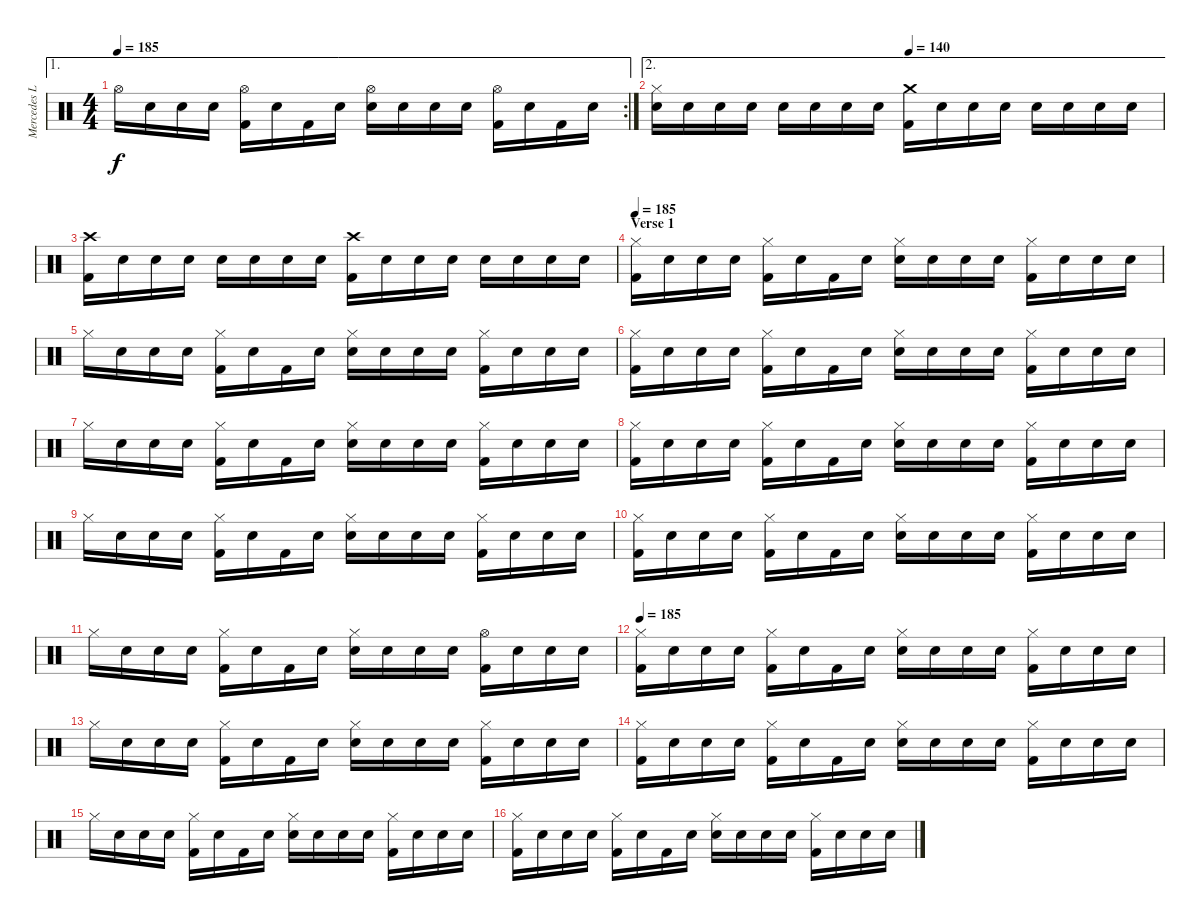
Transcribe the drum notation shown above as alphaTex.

\track ("Mercedes Lander - Drums" "Mercedes L") {instrument percussion}
\staff {score}
\articulation defaults
\ae 1
\rc 2
\ts (4 4)
\tempo 185
\clef neutral
\ks c "Hi-Hat (open)".16{dy f} "Snare (hit)".16 "Snare (hit)".16 "Snare (hit)".16
("Hi-Hat (open)" "Kick (hit) 2").16 "Snare (hit)".16 "Kick (hit) 2".16 "Snare (hit)".16 ("Hi-Hat (open)" "Electric Snare (hit)").16 "Snare (hit)".16 "Snare (hit)".16 "Snare (hit)".16 ("Hi-Hat (open)" "Kick (hit) 2").16 "Snare (hit)".16 "Kick (hit) 2".16 "Snare (hit)".16 |
\ae 2
\tempo (140 0.5)
("Hi-Hat (closed)" "Electric Snare (hit)").16 "Electric Snare (hit)".16 "Electric Snare (hit)".16 "Electric Snare (hit)".16 "Snare (hit) 2".16 "Snare (hit) 2".16 "Snare (hit) 2".16 "Snare (hit) 2".16 ("Crash medium (hit)" "Kick (hit) 2").16 "Snare (hit)".16 "Snare (hit)".16 "Snare (hit)".16 "Snare (hit)".16 "Snare (hit)".16 "Snare (hit)".16 "Snare (hit)".16 |
("Crash high (hit)" "Kick (hit) 2").16 "Snare (hit)".16 "Snare (hit)".16 "Snare (hit)".16 "Snare (hit)".16 "Snare (hit)".16 "Snare (hit)".16 "Snare (hit)".16 ("Crash high (hit)" "Kick (hit) 2").16 "Snare (hit)".16 "Snare (hit)".16 "Snare (hit)".16 "Snare (hit)".16 "Snare (hit)".16 "Snare (hit)".16 "Snare (hit)".16 |
\section ("" "Verse 1")
\tempo 185
("Hi-Hat (closed)" "Kick (hit) 2").16{volume 16 balance 8} "Snare (hit)".16 "Snare (hit)".16 "Snare (hit)".16 ("Hi-Hat (closed)" "Kick (hit) 2").16 "Snare (hit)".16 "Kick (hit) 2".16 "Snare (hit)".16 ("Hi-Hat (closed)" "Snare (hit) 2").16 "Snare (hit)".16 "Snare (hit)".16 "Snare (hit)".16 ("Hi-Hat (closed)" "Kick (hit) 2").16 "Snare (hit)".16 "Snare (hit)".16 "Snare (hit)".16 |
"Hi-Hat (closed)".16 "Snare (hit)".16 "Snare (hit)".16 "Snare (hit)".16 ("Hi-Hat (closed)" "Kick (hit) 2").16 "Snare (hit)".16 "Kick (hit) 2".16 "Snare (hit)".16 ("Hi-Hat (closed)" "Electric Snare (hit)").16 "Snare (hit)".16 "Snare (hit)".16 "Snare (hit)".16 ("Hi-Hat (closed)" "Kick (hit) 2").16 "Snare (hit)".16 "Snare (hit)".16 "Snare (hit)".16 |
("Hi-Hat (closed)" "Kick (hit) 2").16 "Snare (hit)".16 "Snare (hit)".16 "Snare (hit)".16 ("Hi-Hat (closed)" "Kick (hit) 2").16 "Snare (hit)".16 "Kick (hit) 2".16 "Snare (hit)".16 ("Hi-Hat (closed)" "Snare (hit) 2").16 "Snare (hit)".16 "Snare (hit)".16 "Snare (hit)".16 ("Hi-Hat (closed)" "Kick (hit) 2").16 "Snare (hit)".16 "Snare (hit)".16 "Snare (hit)".16 |
"Hi-Hat (closed)".16 "Snare (hit)".16 "Snare (hit)".16 "Snare (hit)".16 ("Hi-Hat (closed)" "Kick (hit) 2").16 "Snare (hit)".16 "Kick (hit) 2".16 "Snare (hit)".16 ("Hi-Hat (closed)" "Electric Snare (hit)").16 "Snare (hit)".16 "Snare (hit)".16 "Snare (hit)".16 ("Hi-Hat (closed)" "Kick (hit) 2").16 "Snare (hit)".16 "Snare (hit)".16 "Snare (hit)".16 |
("Hi-Hat (closed)" "Kick (hit) 2").16 "Snare (hit)".16 "Snare (hit)".16 "Snare (hit)".16 ("Hi-Hat (closed)" "Kick (hit) 2").16 "Snare (hit)".16 "Kick (hit) 2".16 "Snare (hit)".16 ("Hi-Hat (closed)" "Snare (hit) 2").16 "Snare (hit)".16 "Snare (hit)".16 "Snare (hit)".16 ("Hi-Hat (closed)" "Kick (hit) 2").16 "Snare (hit)".16 "Snare (hit)".16 "Snare (hit)".16 |
"Hi-Hat (closed)".16 "Snare (hit)".16 "Snare (hit)".16 "Snare (hit)".16 ("Hi-Hat (closed)" "Kick (hit) 2").16 "Snare (hit)".16 "Kick (hit) 2".16 "Snare (hit)".16 ("Hi-Hat (closed)" "Electric Snare (hit)").16 "Snare (hit)".16 "Snare (hit)".16 "Snare (hit)".16 ("Hi-Hat (closed)" "Kick (hit) 2").16 "Snare (hit)".16 "Snare (hit)".16 "Snare (hit)".16 |
("Hi-Hat (closed)" "Kick (hit) 2").16 "Snare (hit)".16 "Snare (hit)".16 "Snare (hit)".16 ("Hi-Hat (closed)" "Kick (hit) 2").16 "Snare (hit)".16 "Kick (hit) 2".16 "Snare (hit)".16 ("Hi-Hat (closed)" "Snare (hit) 2").16 "Snare (hit)".16 "Snare (hit)".16 "Snare (hit)".16 ("Hi-Hat (closed)" "Kick (hit) 2").16 "Snare (hit)".16 "Snare (hit)".16 "Snare (hit)".16 |
"Hi-Hat (closed)".16 "Snare (hit)".16 "Snare (hit)".16 "Snare (hit)".16 ("Hi-Hat (closed)" "Kick (hit) 2").16 "Snare (hit)".16 "Kick (hit) 2".16 "Snare (hit)".16 ("Hi-Hat (closed)" "Electric Snare (hit)").16 "Snare (hit)".16 "Snare (hit)".16 "Snare (hit)".16 ("Hi-Hat (open)" "Kick (hit) 2").16 "Snare (hit)".16 "Snare (hit)".16 "Snare (hit)".16 |
\tempo 185
("Hi-Hat (closed)" "Kick (hit) 2").16{volume 16 balance 8} "Snare (hit)".16 "Snare (hit)".16 "Snare (hit)".16 ("Hi-Hat (closed)" "Kick (hit) 2").16 "Snare (hit)".16 "Kick (hit) 2".16 "Snare (hit)".16 ("Hi-Hat (closed)" "Snare (hit) 2").16 "Snare (hit)".16 "Snare (hit)".16 "Snare (hit)".16 ("Hi-Hat (closed)" "Kick (hit) 2").16 "Snare (hit)".16 "Snare (hit)".16 "Snare (hit)".16 |
"Hi-Hat (closed)".16 "Snare (hit)".16 "Snare (hit)".16 "Snare (hit)".16 ("Hi-Hat (closed)" "Kick (hit) 2").16 "Snare (hit)".16 "Kick (hit) 2".16 "Snare (hit)".16 ("Hi-Hat (closed)" "Electric Snare (hit)").16 "Snare (hit)".16 "Snare (hit)".16 "Snare (hit)".16 ("Hi-Hat (closed)" "Kick (hit) 2").16 "Snare (hit)".16 "Snare (hit)".16 "Snare (hit)".16 |
("Hi-Hat (closed)" "Kick (hit) 2").16 "Snare (hit)".16 "Snare (hit)".16 "Snare (hit)".16 ("Hi-Hat (closed)" "Kick (hit) 2").16 "Snare (hit)".16 "Kick (hit) 2".16 "Snare (hit)".16 ("Hi-Hat (closed)" "Snare (hit) 2").16 "Snare (hit)".16 "Snare (hit)".16 "Snare (hit)".16 ("Hi-Hat (closed)" "Kick (hit) 2").16 "Snare (hit)".16 "Snare (hit)".16 "Snare (hit)".16 |
"Hi-Hat (closed)".16 "Snare (hit)".16 "Snare (hit)".16 "Snare (hit)".16 ("Hi-Hat (closed)" "Kick (hit) 2").16 "Snare (hit)".16 "Kick (hit) 2".16 "Snare (hit)".16 ("Hi-Hat (closed)" "Electric Snare (hit)").16 "Snare (hit)".16 "Snare (hit)".16 "Snare (hit)".16 ("Hi-Hat (closed)" "Kick (hit) 2").16 "Snare (hit)".16 "Snare (hit)".16 "Snare (hit)".16 |
("Hi-Hat (closed)" "Kick (hit) 2").16 "Snare (hit)".16 "Snare (hit)".16 "Snare (hit)".16 ("Hi-Hat (closed)" "Kick (hit) 2").16 "Snare (hit)".16 "Kick (hit) 2".16 "Snare (hit)".16 ("Hi-Hat (closed)" "Snare (hit) 2").16 "Snare (hit)".16 "Snare (hit)".16 "Snare (hit)".16 ("Hi-Hat (closed)" "Kick (hit) 2").16 "Snare (hit)".16 "Snare (hit)".16 "Snare (hit)".16
